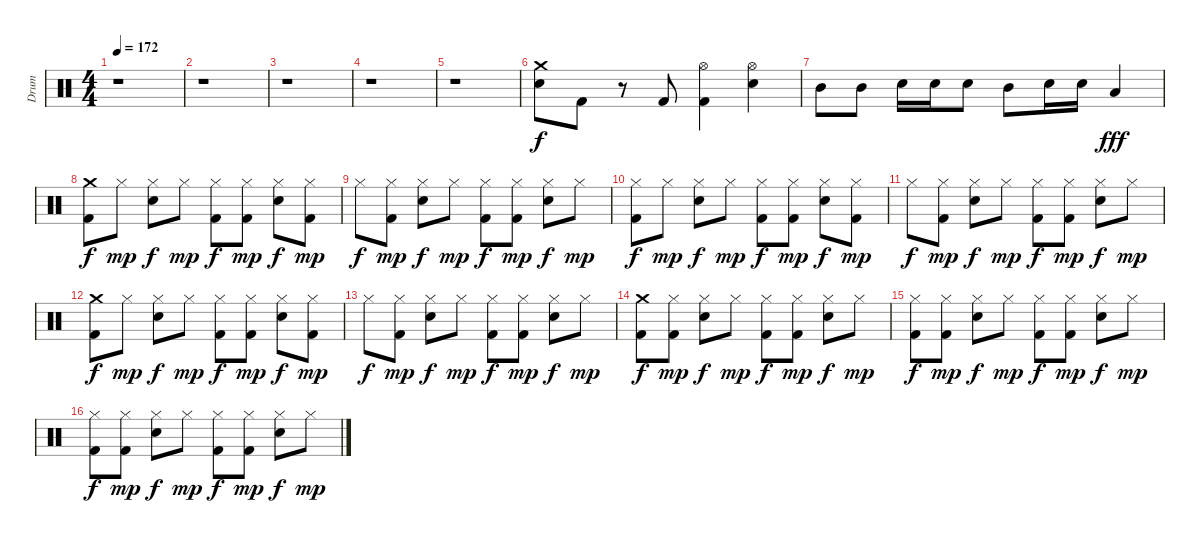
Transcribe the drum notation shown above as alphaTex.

\track ("Drum" "Drum") {instrument percussion}
\staff {score}
\articulation defaults
\ts (4 4)
\tempo 172
\clef neutral
\ks c
r.1{dy f} |
r.1 |
r.1 |
r.1 |
r.1 |
("Crash medium (hit)" "Electric Snare (hit)").8 "Kick (hit) 2".8 r.8 "Kick (hit) 2".8 ("Hi-Hat (open)" "Kick (hit) 2").4 ("Hi-Hat (open)" "Electric Snare (hit)").4 |
"Mid Tom (hit)".8 "Mid Tom (hit)".8 "Electric Snare (hit)".16 "Electric Snare (hit)".16 "Electric Snare (hit)".8 "Mid Tom (hit)".8 "Electric Snare (hit)".16 "Electric Snare (hit)".16 "Low Tom (hit)".4{dy fff} |
("Crash medium (hit)" "Kick (hit) 2").8{dy f} "Hi-Hat (closed)".8{dy mp} ("Hi-Hat (closed)" "Electric Snare (hit)").8{dy f} "Hi-Hat (closed)".8{dy mp} ("Hi-Hat (closed)" "Kick (hit) 2").8{dy f} ("Hi-Hat (closed)" "Kick (hit) 2").8{dy mp} ("Hi-Hat (closed)" "Electric Snare (hit)").8{dy f} ("Hi-Hat (closed)" "Kick (hit) 2").8{dy mp} |
"Hi-Hat (closed)".8{dy f} ("Hi-Hat (closed)" "Kick (hit) 2").8{dy mp} ("Hi-Hat (closed)" "Electric Snare (hit)").8{dy f} "Hi-Hat (closed)".8{dy mp} ("Hi-Hat (closed)" "Kick (hit) 2").8{dy f} ("Hi-Hat (closed)" "Kick (hit) 2").8{dy mp} ("Hi-Hat (closed)" "Electric Snare (hit)").8{dy f} "Hi-Hat (closed)".8{dy mp} |
("Hi-Hat (closed)" "Kick (hit) 2").8{dy f} "Hi-Hat (closed)".8{dy mp} ("Hi-Hat (closed)" "Electric Snare (hit)").8{dy f} "Hi-Hat (closed)".8{dy mp} ("Hi-Hat (closed)" "Kick (hit) 2").8{dy f} ("Hi-Hat (closed)" "Kick (hit) 2").8{dy mp} ("Hi-Hat (closed)" "Electric Snare (hit)").8{dy f} ("Hi-Hat (closed)" "Kick (hit) 2").8{dy mp} |
"Hi-Hat (closed)".8{dy f} ("Hi-Hat (closed)" "Kick (hit) 2").8{dy mp} ("Hi-Hat (closed)" "Electric Snare (hit)").8{dy f} "Hi-Hat (closed)".8{dy mp} ("Hi-Hat (closed)" "Kick (hit) 2").8{dy f} ("Hi-Hat (closed)" "Kick (hit) 2").8{dy mp} ("Hi-Hat (closed)" "Electric Snare (hit)").8{dy f} "Hi-Hat (closed)".8{dy mp} |
("Crash medium (hit)" "Kick (hit) 2").8{dy f} "Hi-Hat (closed)".8{dy mp} ("Hi-Hat (closed)" "Electric Snare (hit)").8{dy f} "Hi-Hat (closed)".8{dy mp} ("Hi-Hat (closed)" "Kick (hit) 2").8{dy f} ("Hi-Hat (closed)" "Kick (hit) 2").8{dy mp} ("Hi-Hat (closed)" "Electric Snare (hit)").8{dy f} ("Hi-Hat (closed)" "Kick (hit) 2").8{dy mp} |
"Hi-Hat (closed)".8{dy f} ("Hi-Hat (closed)" "Kick (hit) 2").8{dy mp} ("Hi-Hat (closed)" "Electric Snare (hit)").8{dy f} "Hi-Hat (closed)".8{dy mp} ("Hi-Hat (closed)" "Kick (hit) 2").8{dy f} ("Hi-Hat (closed)" "Kick (hit) 2").8{dy mp} ("Hi-Hat (closed)" "Electric Snare (hit)").8{dy f} "Hi-Hat (closed)".8{dy mp} |
("Crash medium (hit)" "Kick (hit) 2").8{dy f} ("Hi-Hat (closed)" "Kick (hit) 2").8{dy mp} ("Hi-Hat (closed)" "Electric Snare (hit)").8{dy f} "Hi-Hat (closed)".8{dy mp} ("Hi-Hat (closed)" "Kick (hit) 2").8{dy f} ("Hi-Hat (closed)" "Kick (hit) 2").8{dy mp} ("Hi-Hat (closed)" "Electric Snare (hit)").8{dy f} "Hi-Hat (closed)".8{dy mp} |
("Hi-Hat (closed)" "Kick (hit) 2").8{dy f} ("Hi-Hat (closed)" "Kick (hit) 2").8{dy mp} ("Hi-Hat (closed)" "Electric Snare (hit)").8{dy f} "Hi-Hat (closed)".8{dy mp} ("Hi-Hat (closed)" "Kick (hit) 2").8{dy f} ("Hi-Hat (closed)" "Kick (hit) 2").8{dy mp} ("Hi-Hat (closed)" "Electric Snare (hit)").8{dy f} "Hi-Hat (closed)".8{dy mp} |
("Hi-Hat (closed)" "Kick (hit) 2").8{dy f} ("Hi-Hat (closed)" "Kick (hit) 2").8{dy mp} ("Hi-Hat (closed)" "Electric Snare (hit)").8{dy f} "Hi-Hat (closed)".8{dy mp} ("Hi-Hat (closed)" "Kick (hit) 2").8{dy f} ("Hi-Hat (closed)" "Kick (hit) 2").8{dy mp} ("Hi-Hat (closed)" "Electric Snare (hit)").8{dy f} "Hi-Hat (closed)".8{dy mp}
